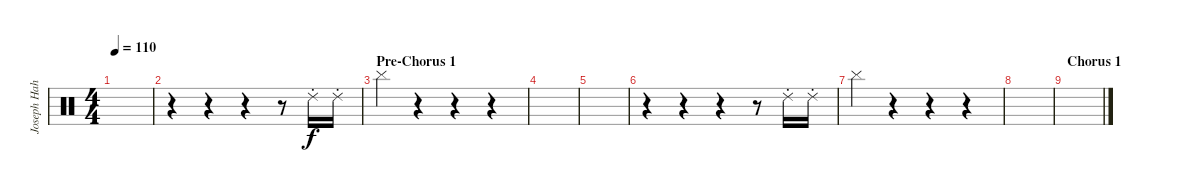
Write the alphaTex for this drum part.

\track ("Joseph Hahn (Turntables)" "Joseph Hah") {instrument percussion}
\staff {score}
\articulation defaults
\ts (4 4)
\tempo 110
\clef neutral
\ks c
|
r.4 r.4 r.4 r.8 "Ride (choke) 2".16 "Ride (choke) 2".16 |
\section ("" "Pre-Chorus 1")
"Cymbal (hit)".4 r.4 r.4 r.4 |
|
|
r.4 r.4 r.4 r.8 "Ride (choke) 2".16 "Ride (choke) 2".16 |
"Cymbal (hit)".4 r.4 r.4 r.4 |
|
\section ("" "Chorus 1")
